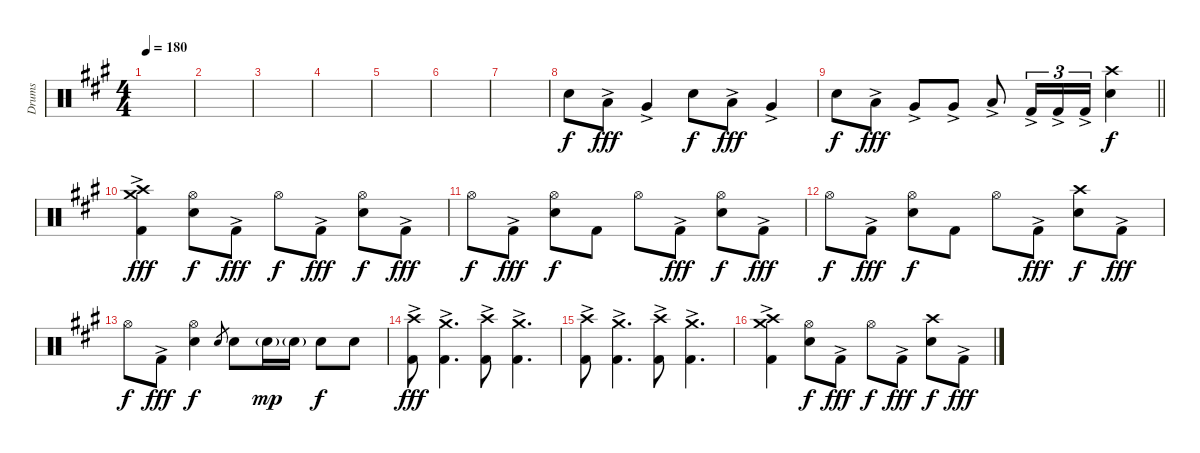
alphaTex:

\track ("Drums" "Drums") {instrument percussion}
\staff {score}
\articulation defaults
\ts (4 4)
\tempo 180
\clef neutral
\ks f#minor
|
|
|
|
|
|
|
"Snare (hit) 2".8 "Low Tom (hit)"{ac}.8{dy fff} "Very Low Tom (hit)"{ac}.4 "Snare (hit) 2".8{dy f} "Low Tom (hit)"{ac}.8{dy fff} "Very Low Tom (hit)"{ac}.4 |
\barLineRight lightlight "Snare (hit) 2".8{dy f} "Low Tom (hit)"{ac}.8{dy fff} "Very Low Tom (hit)"{ac}.8 "Very Low Tom (hit)"{ac}.8 "Low Floor Tom (hit)"{ac}.8 "Kick (hit) 2"{ac}.16{tu (3 2)} "Kick (hit) 2"{ac}.16{tu (3 2)} "Kick (hit) 2"{ac}.16{tu (3 2)}
("Crash high (hit)" "Snare (hit) 2").4{dy f} |
("Crash high (hit)" "Crash medium (hit)" "Kick (hit) 2"{ac}).4{dy fff} ("Hi-Hat (open)" "Snare (hit) 2").8{dy f} "Kick (hit) 2"{ac}.8{dy fff} "Hi-Hat (open)".8{dy f} "Kick (hit) 2"{ac}.8{dy fff} ("Hi-Hat (open)" "Snare (hit) 2").8{dy f} "Kick (hit) 2"{ac}.8{dy fff} |
"Hi-Hat (open)".8{dy f} "Kick (hit) 2"{ac}.8{dy fff} ("Hi-Hat (open)" "Snare (hit) 2").8{dy f} "Kick (hit) 2".8 "Hi-Hat (open)".8 "Kick (hit) 2"{ac}.8{dy fff} ("Hi-Hat (open)" "Snare (hit) 2").8{dy f} "Kick (hit) 2"{ac}.8{dy fff} |
"Hi-Hat (open)".8{dy f} "Kick (hit) 2"{ac}.8{dy fff} ("Hi-Hat (open)" "Snare (hit) 2").8{dy f} "Kick (hit) 2".8 "Hi-Hat (open)".8 "Kick (hit) 2"{ac}.8{dy fff} ("Crash high (hit)" "Snare (hit) 2").8{dy f} "Kick (hit) 2"{ac}.8{dy fff} |
"Hi-Hat (open)".8{dy f} "Kick (hit) 2"{ac}.8{dy fff} ("Hi-Hat (open)" "Snare (hit) 2").4{dy f} "Snare (hit) 2".8{gr} "Snare (hit) 2".8 "Snare (hit) 2"{g}.16{dy mp} "Snare (hit) 2"{g}.16 "Snare (hit) 2".8{dy f} "Snare (hit) 2".8 |
("Crash high (hit)" "Kick (hit) 2"{ac}).8{dy fff} ("Crash medium (hit)" "Kick (hit) 2"{ac}).4{d} ("Crash high (hit)" "Kick (hit) 2"{ac}).8 ("Crash medium (hit)" "Kick (hit) 2"{ac}).4{d} |
("Crash high (hit)" "Kick (hit) 2"{ac}).8 ("Crash medium (hit)" "Kick (hit) 2"{ac}).4{d} ("Crash high (hit)" "Kick (hit) 2"{ac}).8 ("Crash medium (hit)" "Kick (hit) 2"{ac}).4{d} |
("Crash high (hit)" "Crash medium (hit)" "Kick (hit) 2"{ac}).4 ("Hi-Hat (open)" "Snare (hit) 2").8{dy f} "Kick (hit) 2"{ac}.8{dy fff} "Hi-Hat (open)".8{dy f} "Kick (hit) 2"{ac}.8{dy fff} ("Crash high (hit)" "Snare (hit) 2").8{dy f} "Kick (hit) 2"{ac}.8{dy fff}
